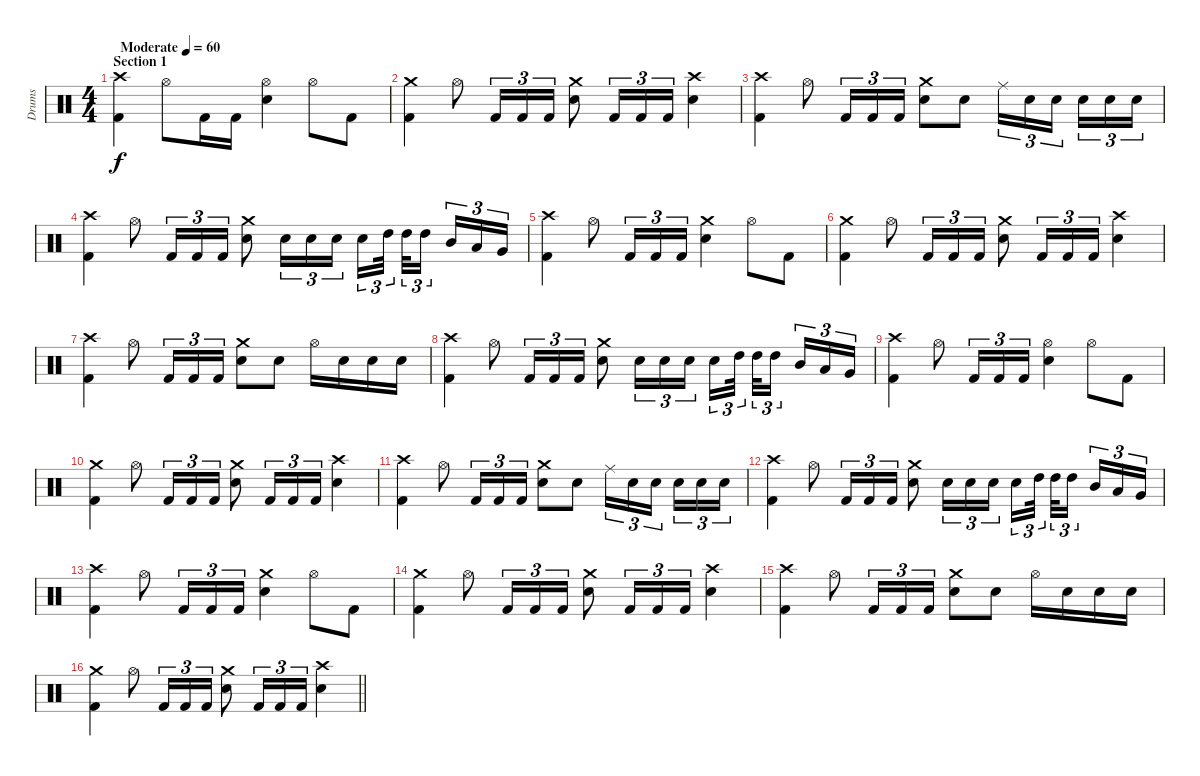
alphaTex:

\track ("Drums" "Drums") {instrument percussion}
\staff {score}
\articulation defaults
\ts (4 4)
\section ("" "Section 1")
\tempo (60 "Moderate")
\clef neutral
\ks c
("Crash high (hit)" "Kick (hit) 2").4{dy f} "Hi-Hat (open)".8 "Kick (hit) 2".16 "Kick (hit) 2".16 ("Hi-Hat (open)" "Electric Snare (hit)").4 "Hi-Hat (open)".8 "Kick (hit) 2".8 |
("Crash medium (hit)" "Kick (hit) 2").4 "Hi-Hat (open)".8 "Kick (hit) 2".16{tu (3 2)} "Kick (hit) 2".16{tu (3 2)} "Kick (hit) 2".16{tu (3 2)} ("Crash medium (hit)" "Electric Snare (hit)").8 "Kick (hit) 2".16{tu (3 2)} "Kick (hit) 2".16{tu (3 2)} "Kick (hit) 2".16{tu (3 2)} ("Crash high (hit)" "Electric Snare (hit)").4 |
("Crash high (hit)" "Kick (hit) 2").4 "Hi-Hat (open)".8 "Kick (hit) 2".16{tu (3 2)} "Kick (hit) 2".16{tu (3 2)} "Kick (hit) 2".16{tu (3 2)} ("Crash medium (hit)" "Electric Snare (hit)").8 "Electric Snare (hit)".8 "Ride (middle)".16{tu (3 2)} "Electric Snare (hit)".16{tu (3 2)} "Electric Snare (hit)".16{tu (3 2) beam splitsecondary} "Electric Snare (hit)".16{tu (3 2)} "Electric Snare (hit)".16{tu (3 2)} "Electric Snare (hit)".16{tu (3 2)} |
("Crash high (hit)" "Kick (hit) 2").4 "Hi-Hat (open)".8 "Kick (hit) 2".16{tu (3 2)} "Kick (hit) 2".16{tu (3 2)} "Kick (hit) 2".16{tu (3 2)} ("Crash medium (hit)" "Electric Snare (hit)").8 "Electric Snare (hit)".16{tu (3 2)} "Electric Snare (hit)".16{tu (3 2)} "Electric Snare (hit)".16{tu (3 2)} "Electric Snare (hit)".16{tu (3 2)} "High Tom (hit)".32{tu (3 2) beam splitsecondary} "High Tom (hit)".32{tu (3 2)} "High Tom (hit)".16{tu (3 2) beam splitsecondary} "Mid Tom (hit)".16{tu (3 2)} "Low Tom (hit)".16{tu (3 2)} "Very Low Tom (hit)".16{tu (3 2)} |
("Crash high (hit)" "Kick (hit) 2").4 "Hi-Hat (open)".8 "Kick (hit) 2".16{tu (3 2)} "Kick (hit) 2".16{tu (3 2)} "Kick (hit) 2".16{tu (3 2)} ("Crash medium (hit)" "Electric Snare (hit)").4 "Hi-Hat (open)".8 "Kick (hit) 2".8 |
("Crash medium (hit)" "Kick (hit) 2").4 "Hi-Hat (open)".8 "Kick (hit) 2".16{tu (3 2)} "Kick (hit) 2".16{tu (3 2)} "Kick (hit) 2".16{tu (3 2)} ("Crash medium (hit)" "Electric Snare (hit)").8 "Kick (hit) 2".16{tu (3 2)} "Kick (hit) 2".16{tu (3 2)} "Kick (hit) 2".16{tu (3 2)} ("Crash high (hit)" "Electric Snare (hit)").4 |
("Crash high (hit)" "Kick (hit) 2").4 "Hi-Hat (open)".8 "Kick (hit) 2".16{tu (3 2)} "Kick (hit) 2".16{tu (3 2)} "Kick (hit) 2".16{tu (3 2)} ("Crash medium (hit)" "Electric Snare (hit)").8 "Electric Snare (hit)".8 "Hi-Hat (open)".16 "Electric Snare (hit)".16 "Electric Snare (hit)".16 "Electric Snare (hit)".16 |
("Crash high (hit)" "Kick (hit) 2").4 "Hi-Hat (open)".8 "Kick (hit) 2".16{tu (3 2)} "Kick (hit) 2".16{tu (3 2)} "Kick (hit) 2".16{tu (3 2)} ("Crash medium (hit)" "Electric Snare (hit)").8 "Electric Snare (hit)".16{tu (3 2)} "Electric Snare (hit)".16{tu (3 2)} "Electric Snare (hit)".16{tu (3 2)} "Electric Snare (hit)".16{tu (3 2)} "High Tom (hit)".32{tu (3 2) beam splitsecondary} "High Tom (hit)".32{tu (3 2)} "High Tom (hit)".16{tu (3 2) beam splitsecondary} "Mid Tom (hit)".16{tu (3 2)} "Low Tom (hit)".16{tu (3 2)} "Very Low Tom (hit)".16{tu (3 2)} |
("Crash high (hit)" "Kick (hit) 2").4 "Hi-Hat (open)".8 "Kick (hit) 2".16{tu (3 2)} "Kick (hit) 2".16{tu (3 2)} "Kick (hit) 2".16{tu (3 2)} ("Hi-Hat (open)" "Electric Snare (hit)").4 "Hi-Hat (open)".8 "Kick (hit) 2".8 |
("Crash medium (hit)" "Kick (hit) 2").4 "Hi-Hat (open)".8 "Kick (hit) 2".16{tu (3 2)} "Kick (hit) 2".16{tu (3 2)} "Kick (hit) 2".16{tu (3 2)} ("Crash medium (hit)" "Electric Snare (hit)").8 "Kick (hit) 2".16{tu (3 2)} "Kick (hit) 2".16{tu (3 2)} "Kick (hit) 2".16{tu (3 2)} ("Crash high (hit)" "Electric Snare (hit)").4 |
("Crash high (hit)" "Kick (hit) 2").4 "Hi-Hat (open)".8 "Kick (hit) 2".16{tu (3 2)} "Kick (hit) 2".16{tu (3 2)} "Kick (hit) 2".16{tu (3 2)} ("Crash medium (hit)" "Electric Snare (hit)").8 "Electric Snare (hit)".8 "Ride (middle)".16{tu (3 2)} "Electric Snare (hit)".16{tu (3 2)} "Electric Snare (hit)".16{tu (3 2) beam splitsecondary} "Electric Snare (hit)".16{tu (3 2)} "Electric Snare (hit)".16{tu (3 2)} "Electric Snare (hit)".16{tu (3 2)} |
("Crash high (hit)" "Kick (hit) 2").4 "Hi-Hat (open)".8 "Kick (hit) 2".16{tu (3 2)} "Kick (hit) 2".16{tu (3 2)} "Kick (hit) 2".16{tu (3 2)} ("Crash medium (hit)" "Electric Snare (hit)").8 "Electric Snare (hit)".16{tu (3 2)} "Electric Snare (hit)".16{tu (3 2)} "Electric Snare (hit)".16{tu (3 2)} "Electric Snare (hit)".16{tu (3 2)} "High Tom (hit)".32{tu (3 2) beam splitsecondary} "High Tom (hit)".32{tu (3 2)} "High Tom (hit)".16{tu (3 2) beam splitsecondary} "Mid Tom (hit)".16{tu (3 2)} "Low Tom (hit)".16{tu (3 2)} "Very Low Tom (hit)".16{tu (3 2)} |
("Crash high (hit)" "Kick (hit) 2").4 "Hi-Hat (open)".8 "Kick (hit) 2".16{tu (3 2)} "Kick (hit) 2".16{tu (3 2)} "Kick (hit) 2".16{tu (3 2)} ("Crash medium (hit)" "Electric Snare (hit)").4 "Hi-Hat (open)".8 "Kick (hit) 2".8 |
("Crash medium (hit)" "Kick (hit) 2").4 "Hi-Hat (open)".8 "Kick (hit) 2".16{tu (3 2)} "Kick (hit) 2".16{tu (3 2)} "Kick (hit) 2".16{tu (3 2)} ("Crash medium (hit)" "Electric Snare (hit)").8 "Kick (hit) 2".16{tu (3 2)} "Kick (hit) 2".16{tu (3 2)} "Kick (hit) 2".16{tu (3 2)} ("Crash high (hit)" "Electric Snare (hit)").4 |
("Crash high (hit)" "Kick (hit) 2").4 "Hi-Hat (open)".8 "Kick (hit) 2".16{tu (3 2)} "Kick (hit) 2".16{tu (3 2)} "Kick (hit) 2".16{tu (3 2)} ("Crash medium (hit)" "Electric Snare (hit)").8 "Electric Snare (hit)".8 "Hi-Hat (open)".16 "Electric Snare (hit)".16 "Electric Snare (hit)".16 "Electric Snare (hit)".16 |
\barLineRight lightlight
("Crash medium (hit)" "Kick (hit) 2").4 "Hi-Hat (open)".8 "Kick (hit) 2".16{tu (3 2)} "Kick (hit) 2".16{tu (3 2)} "Kick (hit) 2".16{tu (3 2)} ("Crash medium (hit)" "Electric Snare (hit)").8 "Kick (hit) 2".16{tu (3 2)} "Kick (hit) 2".16{tu (3 2)} "Kick (hit) 2".16{tu (3 2)} ("Crash high (hit)" "Electric Snare (hit)").4
